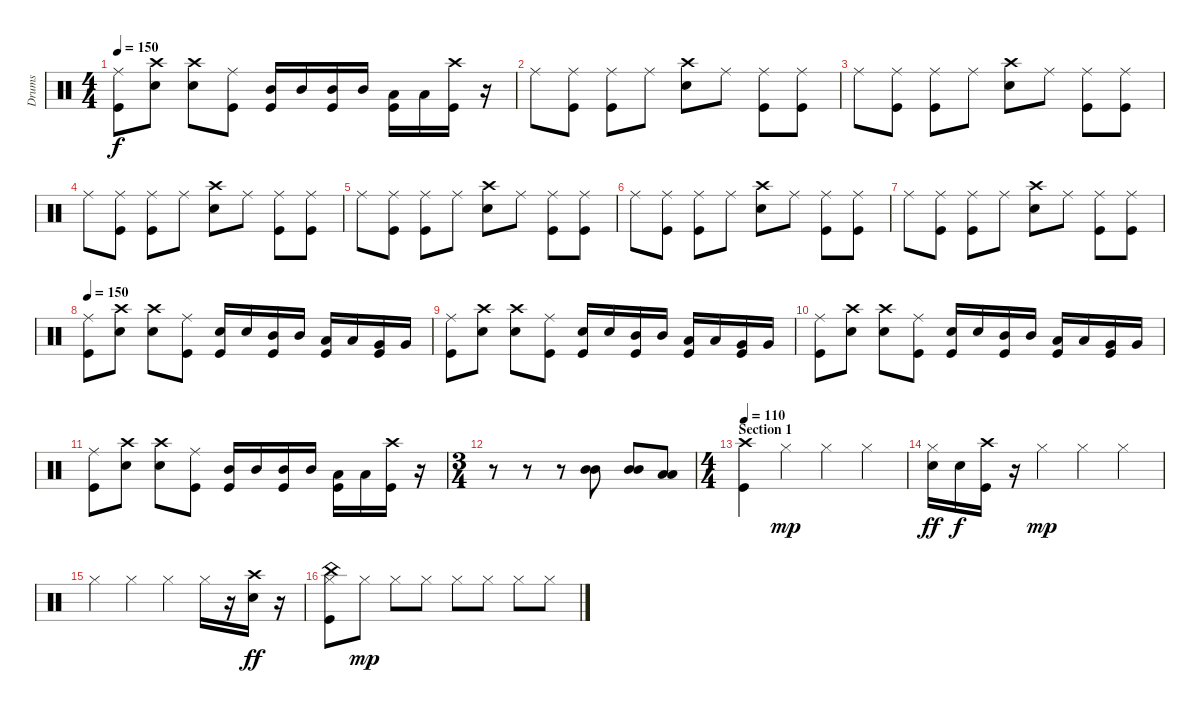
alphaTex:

\track ("Drums" "Drums") {instrument percussion}
\staff {score}
\articulation defaults
\ts (4 4)
\tempo 150
\clef neutral
\ks c
("Ride (middle)" "Kick (hit)").8{dy f} ("Crash high (hit)" "Electric Snare (hit)").8 ("Crash high (hit)" "Electric Snare (hit)").8 ("Ride (middle)" "Kick (hit)").8 ("Mid Tom (hit)" "Kick (hit)").16 "Mid Tom (hit)".16 ("Mid Tom (hit)" "Kick (hit)").16 "Mid Tom (hit)".16 ("Low Tom (hit)" "Kick (hit)").16 "Low Tom (hit)".16 ("Crash high (hit)" "Kick (hit)").16 r.16 |
"Ride (middle)".8 ("Ride (middle)" "Kick (hit)").8 ("Ride (middle)" "Kick (hit)").8 "Ride (middle)".8 ("Crash high (hit)" "Electric Snare (hit)").8 "Ride (middle)".8 ("Ride (middle)" "Kick (hit)").8 ("Ride (middle)" "Kick (hit)").8 |
"Ride (middle)".8 ("Ride (middle)" "Kick (hit)").8 ("Ride (middle)" "Kick (hit)").8 "Ride (middle)".8 ("Crash high (hit)" "Electric Snare (hit)").8 "Ride (middle)".8 ("Ride (middle)" "Kick (hit)").8 ("Ride (middle)" "Kick (hit)").8 |
"Ride (middle)".8 ("Ride (middle)" "Kick (hit)").8 ("Ride (middle)" "Kick (hit)").8 "Ride (middle)".8 ("Crash high (hit)" "Electric Snare (hit)").8 "Ride (middle)".8 ("Ride (middle)" "Kick (hit)").8 ("Ride (middle)" "Kick (hit)").8 |
"Ride (middle)".8 ("Ride (middle)" "Kick (hit)").8 ("Ride (middle)" "Kick (hit)").8 "Ride (middle)".8 ("Crash high (hit)" "Electric Snare (hit)").8 "Ride (middle)".8 ("Ride (middle)" "Kick (hit)").8 ("Ride (middle)" "Kick (hit)").8 |
"Ride (middle)".8 ("Ride (middle)" "Kick (hit)").8 ("Ride (middle)" "Kick (hit)").8 "Ride (middle)".8 ("Crash high (hit)" "Electric Snare (hit)").8 "Ride (middle)".8 ("Ride (middle)" "Kick (hit)").8 ("Ride (middle)" "Kick (hit)").8 |
"Ride (middle)".8 ("Ride (middle)" "Kick (hit)").8 ("Ride (middle)" "Kick (hit)").8 "Ride (middle)".8 ("Crash high (hit)" "Electric Snare (hit)").8 "Ride (middle)".8 ("Ride (middle)" "Kick (hit)").8 ("Ride (middle)" "Kick (hit)").8 |
\tempo 150
("Ride (middle)" "Kick (hit)").8 ("Crash high (hit)" "Electric Snare (hit)").8 ("Crash high (hit)" "Electric Snare (hit)").8 ("Ride (middle)" "Kick (hit)").8 ("Electric Snare (hit)" "Kick (hit)").16 "Electric Snare (hit)".16 ("Mid Tom (hit)" "Kick (hit)").16 "Mid Tom (hit)".16 ("Low Tom (hit)" "Kick (hit)").16 "Low Tom (hit)".16 ("Very Low Tom (hit)" "Kick (hit)").16 "Very Low Tom (hit)".16 |
("Ride (middle)" "Kick (hit)").8 ("Crash high (hit)" "Electric Snare (hit)").8 ("Crash high (hit)" "Electric Snare (hit)").8 ("Ride (middle)" "Kick (hit)").8 ("Electric Snare (hit)" "Kick (hit)").16 "Electric Snare (hit)".16 ("Mid Tom (hit)" "Kick (hit)").16 "Mid Tom (hit)".16 ("Low Tom (hit)" "Kick (hit)").16 "Low Tom (hit)".16 ("Very Low Tom (hit)" "Kick (hit)").16 "Very Low Tom (hit)".16 |
("Ride (middle)" "Kick (hit)").8 ("Crash high (hit)" "Electric Snare (hit)").8 ("Crash high (hit)" "Electric Snare (hit)").8 ("Ride (middle)" "Kick (hit)").8 ("Electric Snare (hit)" "Kick (hit)").16 "Electric Snare (hit)".16 ("Mid Tom (hit)" "Kick (hit)").16 "Mid Tom (hit)".16 ("Low Tom (hit)" "Kick (hit)").16 "Low Tom (hit)".16 ("Very Low Tom (hit)" "Kick (hit)").16 "Very Low Tom (hit)".16 |
("Ride (middle)" "Kick (hit)").8 ("Crash high (hit)" "Electric Snare (hit)").8 ("Crash high (hit)" "Electric Snare (hit)").8 ("Ride (middle)" "Kick (hit)").8 ("Mid Tom (hit)" "Kick (hit)").16 "Mid Tom (hit)".16 ("Mid Tom (hit)" "Kick (hit)").16 "Mid Tom (hit)".16 ("Low Tom (hit)" "Kick (hit)").16 "Low Tom (hit)".16 ("Crash high (hit)" "Kick (hit)").16 r.16 |
\ts (3 4)
r.8 r.8 r.8 ("Mid Tom (hit)" "Mid Tom (hit)").8 ("Mid Tom (hit)" "Mid Tom (hit)").8 ("Low Tom (hit)" "Low Tom (hit)").8 |
\ts (4 4)
\section ("" "Section 1")
\tempo 110
("Crash high (hit)" "Kick (hit)").4 "Hi-Hat (closed)".4{dy mp} "Hi-Hat (closed)".4 "Hi-Hat (closed)".4 |
("Hi-Hat (closed)" "Electric Snare (hit)").16{dy ff} "Electric Snare (hit)".16{dy f} ("Crash high (hit)" "Kick (hit)").16 r.16 "Hi-Hat (closed)".4{dy mp} "Hi-Hat (closed)".4 "Hi-Hat (closed)".4 |
"Hi-Hat (closed)".4 "Hi-Hat (closed)".4 "Hi-Hat (closed)".4 "Hi-Hat (closed)".16 r.16 ("Crash high (hit)" "Electric Snare (hit)").16{dy ff} r.16 |
("China (hit)" "Hi-Hat (closed)" "Kick (hit)").8 "Hi-Hat (closed)".8{dy mp} "Hi-Hat (closed)".8 "Hi-Hat (closed)".8 "Hi-Hat (closed)".8 "Hi-Hat (closed)".8 "Hi-Hat (closed)".8 "Hi-Hat (closed)".8
